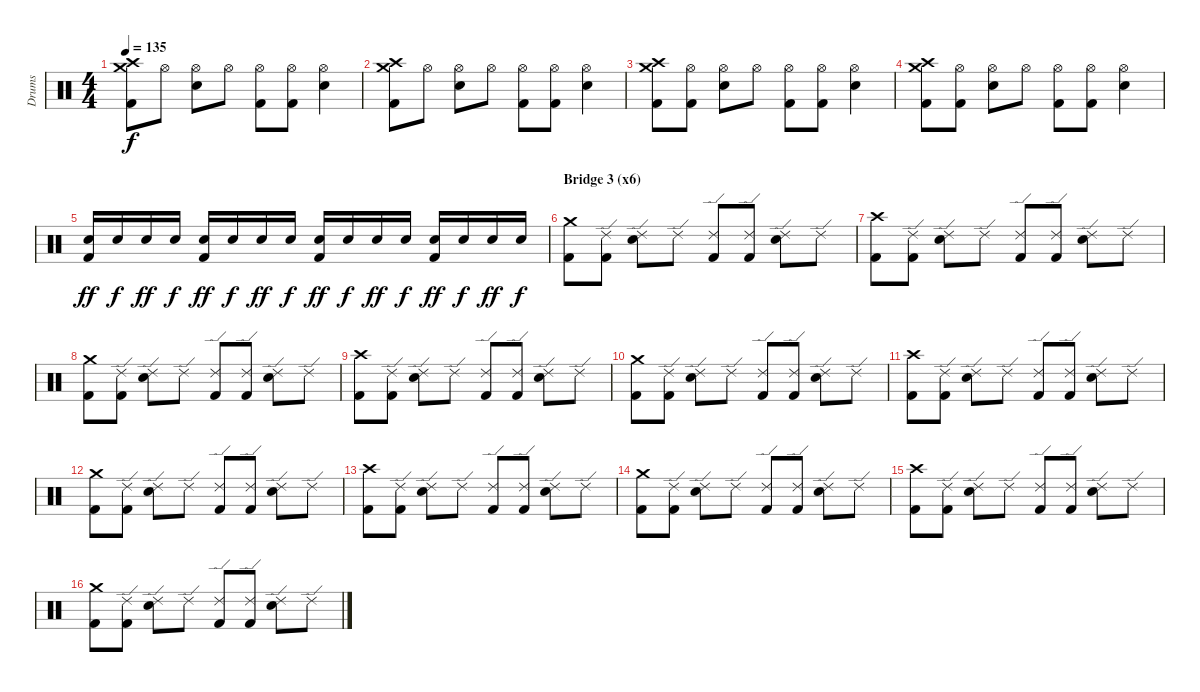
\track ("Drums" "Drums") {instrument percussion}
\staff {score}
\articulation defaults
\ts (4 4)
\tempo 135
\clef neutral
\ks c
("Crash high (hit)" "Crash medium (hit)" "Kick (hit) 2").8{dy f} "Hi-Hat (open)".8 ("Hi-Hat (open)" "Snare (hit) 2").8 "Hi-Hat (open)".8 ("Hi-Hat (open)" "Kick (hit) 2").8 ("Hi-Hat (open)" "Kick (hit) 2").8 ("Hi-Hat (open)" "Snare (hit) 2").4 |
("Crash medium (hit)" "Crash high (hit)" "Kick (hit) 2").8 "Hi-Hat (open)".8 ("Hi-Hat (open)" "Snare (hit) 2").8 "Hi-Hat (open)".8 ("Hi-Hat (open)" "Kick (hit) 2").8 ("Hi-Hat (open)" "Kick (hit) 2").8 ("Hi-Hat (open)" "Snare (hit) 2").4 |
("Crash high (hit)" "Crash medium (hit)" "Kick (hit) 2").8 ("Hi-Hat (open)" "Kick (hit) 2").8 ("Hi-Hat (open)" "Snare (hit) 2").8 "Hi-Hat (open)".8 ("Hi-Hat (open)" "Kick (hit) 2").8 ("Hi-Hat (open)" "Kick (hit) 2").8 ("Hi-Hat (open)" "Snare (hit) 2").4 |
("Crash medium (hit)" "Crash high (hit)" "Kick (hit) 2").8 ("Hi-Hat (open)" "Kick (hit) 2").8 ("Hi-Hat (open)" "Snare (hit) 2").8 "Hi-Hat (open)".8 ("Hi-Hat (open)" "Kick (hit) 2").8 ("Hi-Hat (open)" "Kick (hit) 2").8 ("Hi-Hat (open)" "Snare (hit) 2").4 |
("Snare (hit) 2" "Kick (hit) 2").16{dy ff} "Snare (hit) 2".16{dy f} "Snare (hit) 2".16{dy ff} "Snare (hit) 2".16{dy f} ("Snare (hit) 2" "Kick (hit) 2").16{dy ff} "Snare (hit) 2".16{dy f} "Snare (hit) 2".16{dy ff} "Snare (hit) 2".16{dy f} ("Snare (hit) 2" "Kick (hit) 2").16{dy ff} "Snare (hit) 2".16{dy f} "Snare (hit) 2".16{dy ff} "Snare (hit) 2".16{dy f} ("Snare (hit) 2" "Kick (hit) 2").16{dy ff} "Snare (hit) 2".16{dy f} "Snare (hit) 2".16{dy ff} "Snare (hit) 2".16{dy f} |
\section ("" "Bridge 3 (x6)")
("Crash medium (hit)" "Kick (hit) 2").8 ("Ride (edge) 2" "Kick (hit) 2").8 ("Ride (edge) 2" "Snare (hit) 2").8 "Ride (edge) 2".8 ("Ride (edge) 2" "Kick (hit) 2").8 ("Ride (edge) 2" "Kick (hit) 2").8 ("Ride (edge) 2" "Snare (hit) 2").8 "Ride (edge) 2".8 |
("Crash high (hit)" "Kick (hit) 2").8 ("Ride (edge) 2" "Kick (hit) 2").8 ("Ride (edge) 2" "Snare (hit) 2").8 "Ride (edge) 2".8 ("Ride (edge) 2" "Kick (hit) 2").8 ("Ride (edge) 2" "Kick (hit) 2").8 ("Ride (edge) 2" "Snare (hit) 2").8 "Ride (edge) 2".8 |
("Crash medium (hit)" "Kick (hit) 2").8 ("Ride (edge) 2" "Kick (hit) 2").8 ("Ride (edge) 2" "Snare (hit) 2").8 "Ride (edge) 2".8 ("Ride (edge) 2" "Kick (hit) 2").8 ("Ride (edge) 2" "Kick (hit) 2").8 ("Ride (edge) 2" "Snare (hit) 2").8 "Ride (edge) 2".8 |
("Crash high (hit)" "Kick (hit) 2").8 ("Ride (edge) 2" "Kick (hit) 2").8 ("Ride (edge) 2" "Snare (hit) 2").8 "Ride (edge) 2".8 ("Ride (edge) 2" "Kick (hit) 2").8 ("Ride (edge) 2" "Kick (hit) 2").8 ("Ride (edge) 2" "Snare (hit) 2").8 "Ride (edge) 2".8 |
("Crash medium (hit)" "Kick (hit) 2").8 ("Ride (edge) 2" "Kick (hit) 2").8 ("Ride (edge) 2" "Snare (hit) 2").8 "Ride (edge) 2".8 ("Ride (edge) 2" "Kick (hit) 2").8 ("Ride (edge) 2" "Kick (hit) 2").8 ("Ride (edge) 2" "Snare (hit) 2").8 "Ride (edge) 2".8 |
("Crash high (hit)" "Kick (hit) 2").8 ("Ride (edge) 2" "Kick (hit) 2").8 ("Ride (edge) 2" "Snare (hit) 2").8 "Ride (edge) 2".8 ("Ride (edge) 2" "Kick (hit) 2").8 ("Ride (edge) 2" "Kick (hit) 2").8 ("Ride (edge) 2" "Snare (hit) 2").8 "Ride (edge) 2".8 |
("Crash medium (hit)" "Kick (hit) 2").8 ("Ride (edge) 2" "Kick (hit) 2").8 ("Ride (edge) 2" "Snare (hit) 2").8 "Ride (edge) 2".8 ("Ride (edge) 2" "Kick (hit) 2").8 ("Ride (edge) 2" "Kick (hit) 2").8 ("Ride (edge) 2" "Snare (hit) 2").8 "Ride (edge) 2".8 |
("Crash high (hit)" "Kick (hit) 2").8 ("Ride (edge) 2" "Kick (hit) 2").8 ("Ride (edge) 2" "Snare (hit) 2").8 "Ride (edge) 2".8 ("Ride (edge) 2" "Kick (hit) 2").8 ("Ride (edge) 2" "Kick (hit) 2").8 ("Ride (edge) 2" "Snare (hit) 2").8 "Ride (edge) 2".8 |
("Crash medium (hit)" "Kick (hit) 2").8 ("Ride (edge) 2" "Kick (hit) 2").8 ("Ride (edge) 2" "Snare (hit) 2").8 "Ride (edge) 2".8 ("Ride (edge) 2" "Kick (hit) 2").8 ("Ride (edge) 2" "Kick (hit) 2").8 ("Ride (edge) 2" "Snare (hit) 2").8 "Ride (edge) 2".8 |
("Crash high (hit)" "Kick (hit) 2").8 ("Ride (edge) 2" "Kick (hit) 2").8 ("Ride (edge) 2" "Snare (hit) 2").8 "Ride (edge) 2".8 ("Ride (edge) 2" "Kick (hit) 2").8 ("Ride (edge) 2" "Kick (hit) 2").8 ("Ride (edge) 2" "Snare (hit) 2").8 "Ride (edge) 2".8 |
("Crash medium (hit)" "Kick (hit) 2").8 ("Ride (edge) 2" "Kick (hit) 2").8 ("Ride (edge) 2" "Snare (hit) 2").8 "Ride (edge) 2".8 ("Ride (edge) 2" "Kick (hit) 2").8 ("Ride (edge) 2" "Kick (hit) 2").8 ("Ride (edge) 2" "Snare (hit) 2").8 "Ride (edge) 2".8
